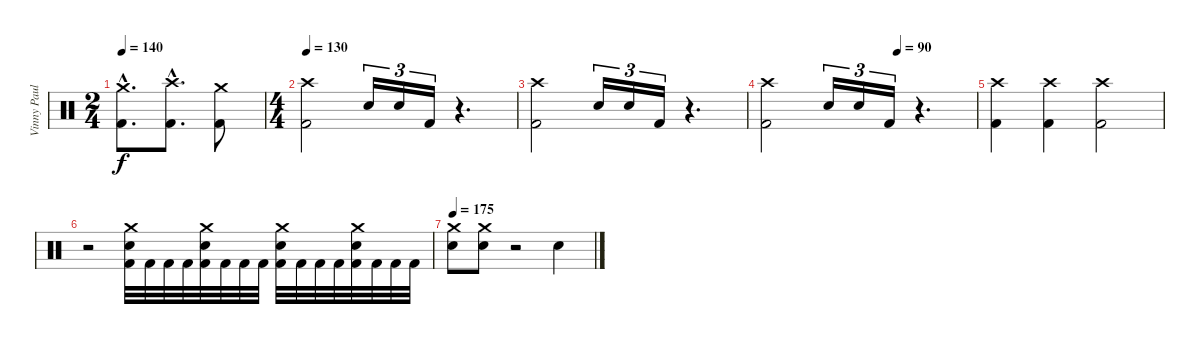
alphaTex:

\track ("Vinny Paul" "Vinny Paul") {instrument percussion}
\staff {score}
\articulation defaults
\ts (2 4)
\tempo 140
\clef neutral
\ks c
("Crash medium (hit)"{hac} "Kick (hit) 2"{hac}).8{d dy f} ("Crash high (hit)"{hac} "Kick (hit) 2"{hac}).8{d} ("Crash medium (hit)" "Kick (hit) 2").8 |
\ts (4 4)
\tempo 130
("Crash high (hit)" "Kick (hit) 2").2 "Snare (hit) 2".16{tu (3 2)} "Snare (hit) 2".16{tu (3 2)} "Kick (hit) 2".16{tu (3 2)} r.4{d} |
("Crash high (hit)" "Kick (hit) 2").2 "Snare (hit) 2".16{tu (3 2)} "Snare (hit) 2".16{tu (3 2)} "Kick (hit) 2".16{tu (3 2)} r.4{d} |
\tempo (90 0.625)
("Crash high (hit)" "Kick (hit) 2").2 "Snare (hit) 2".16{tu (3 2)} "Snare (hit) 2".16{tu (3 2)} "Kick (hit) 2".16{tu (3 2)} r.4{d} |
("Crash high (hit)" "Kick (hit) 2").4 ("Crash high (hit)" "Kick (hit) 2").4 ("Crash high (hit)" "Kick (hit) 2").2 |
r.2 ("Crash medium (hit)" "Snare (hit) 2" "Kick (hit) 2").32 "Kick (hit) 2".32 "Kick (hit) 2".32 "Kick (hit) 2".32 ("Crash medium (hit)" "Snare (hit) 2" "Kick (hit) 2").32 "Kick (hit) 2".32 "Kick (hit) 2".32 "Kick (hit) 2".32 ("Crash medium (hit)" "Snare (hit) 2" "Kick (hit) 2").32 "Kick (hit) 2".32 "Kick (hit) 2".32 "Kick (hit) 2".32 ("Crash medium (hit)" "Snare (hit) 2" "Kick (hit) 2").32 "Kick (hit) 2".32 "Kick (hit) 2".32 "Kick (hit) 2".32 |
\tempo 175
("Crash medium (hit)" "Snare (hit) 2").8 ("Crash medium (hit)" "Snare (hit) 2").8 r.2 "Snare (hit)".4
